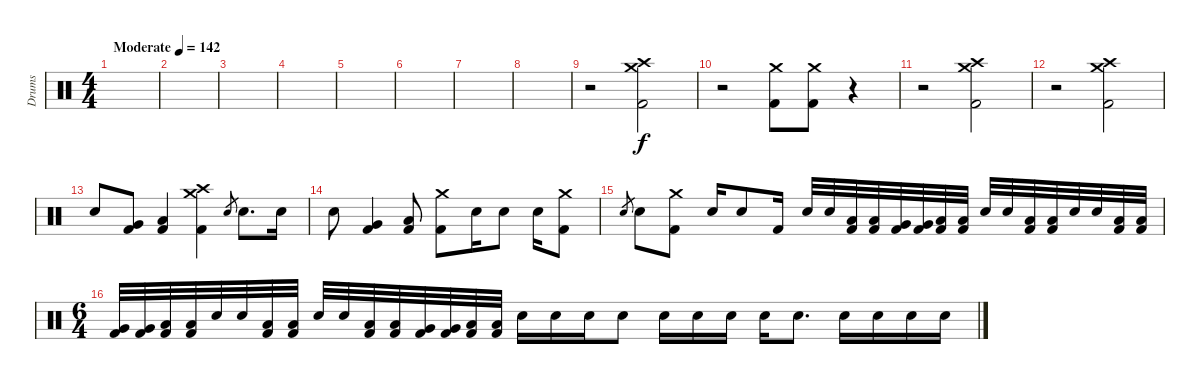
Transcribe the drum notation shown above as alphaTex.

\track ("Drums" "Drums") {instrument percussion}
\staff {score}
\articulation defaults
\ts (4 4)
\tempo (142 "Moderate")
\clef neutral
\ks c
|
|
|
|
|
|
|
|
r.2 ("Crash medium (hit)" "Crash high (hit)" "Kick (hit) 2").2 |
r.2 ("Crash medium (hit)" "Kick (hit) 2").8 ("Crash medium (hit)" "Kick (hit) 2").8 r.4{volume 0} |
r.2 ("Crash medium (hit)" "Crash high (hit)" "Kick (hit) 2").2{volume 16} |
r.2 ("Crash medium (hit)" "Crash high (hit)" "Kick (hit) 2").2 |
"Electric Snare (hit)".8 ("Very Low Tom (hit)" "Kick (hit) 2").8 ("Low Floor Tom (hit)" "Kick (hit) 2").4 ("Crash medium (hit)" "Crash high (hit)" "Kick (hit) 2").4 "Electric Snare (hit)".8{gr} "Electric Snare (hit)".8{d} "Electric Snare (hit)".16 |
"Electric Snare (hit)".8 ("Very Low Tom (hit)" "Kick (hit) 2").4 ("Low Floor Tom (hit)" "Kick (hit) 2").8 ("Crash medium (hit)" "Kick (hit) 2").8 "Electric Snare (hit)".16 "Electric Snare (hit)".8 "Electric Snare (hit)".16 ("Crash medium (hit)" "Kick (hit) 2").8 |
"Electric Snare (hit)".8{gr} "Electric Snare (hit)".8 ("Crash medium (hit)" "Kick (hit) 2").8 "Electric Snare (hit)".16 "Electric Snare (hit)".8 "Kick (hit) 2".16 "Electric Snare (hit)".32 "Electric Snare (hit)".32 ("Low Tom (hit)" "Kick (hit) 2").32 ("Low Tom (hit)" "Kick (hit) 2").32 ("Very Low Tom (hit)" "Kick (hit) 2").32 ("Very Low Tom (hit)" "Kick (hit) 2").32 ("Low Floor Tom (hit)" "Kick (hit) 2").32 ("Low Floor Tom (hit)" "Kick (hit) 2").32 "Electric Snare (hit)".32 "Electric Snare (hit)".32 ("Low Floor Tom (hit)" "Kick (hit) 2").32 ("Low Floor Tom (hit)" "Kick (hit) 2").32 "Electric Snare (hit)".32 "Electric Snare (hit)".32 ("Low Tom (hit)" "Kick (hit) 2").32 ("Low Tom (hit)" "Kick (hit) 2").32 |
\ts (6 4)
("Very Low Tom (hit)" "Kick (hit) 2").32 ("Very Low Tom (hit)" "Kick (hit) 2").32 ("Low Floor Tom (hit)" "Kick (hit) 2").32 ("Low Floor Tom (hit)" "Kick (hit) 2").32 "Electric Snare (hit)".32 "Electric Snare (hit)".32 ("Low Floor Tom (hit)" "Kick (hit) 2").32 ("Low Floor Tom (hit)" "Kick (hit) 2").32 "Electric Snare (hit)".32 "Electric Snare (hit)".32 ("Low Tom (hit)" "Kick (hit) 2").32 ("Low Tom (hit)" "Kick (hit) 2").32 ("Very Low Tom (hit)" "Kick (hit) 2").32 ("Very Low Tom (hit)" "Kick (hit) 2").32 ("Low Floor Tom (hit)" "Kick (hit) 2").32 ("Low Floor Tom (hit)" "Kick (hit) 2").32 "Electric Snare (hit)".16 "Electric Snare (hit)".16 "Electric Snare (hit)".16 "Electric Snare (hit)".8 "Electric Snare (hit)".16 "Electric Snare (hit)".16 "Electric Snare (hit)".16 "Electric Snare (hit)".16 "Electric Snare (hit)".8{d} "Electric Snare (hit)".16 "Electric Snare (hit)".16 "Electric Snare (hit)".16 "Electric Snare (hit)".16
